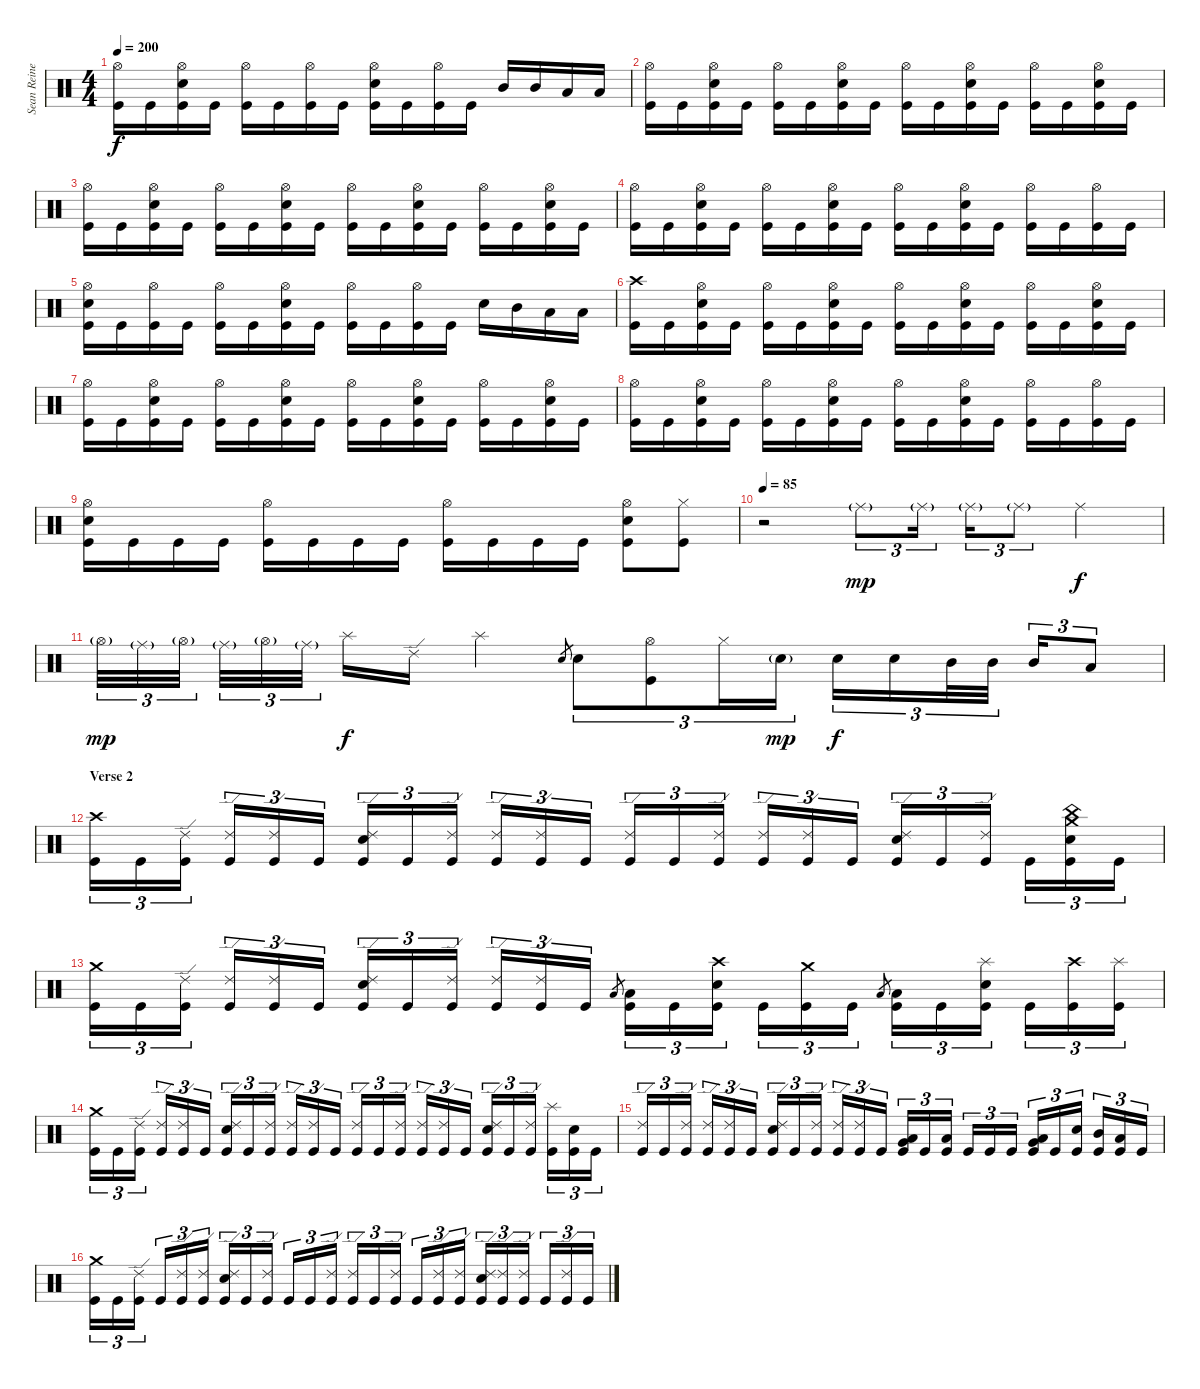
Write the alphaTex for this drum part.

\track ("Sean Reinert " "Sean Reine") {instrument percussion}
\staff {score}
\articulation defaults
\ts (4 4)
\tempo 200
\clef neutral
\ks c
("Hi-Hat (open)" "Kick (hit)").16{dy f} "Kick (hit)".16 ("Hi-Hat (open)" "Electric Snare (hit)" "Kick (hit)").16 "Kick (hit)".16 ("Hi-Hat (open)" "Kick (hit)").16 "Kick (hit)".16 ("Hi-Hat (open)" "Kick (hit)").16 "Kick (hit)".16 ("Hi-Hat (open)" "Electric Snare (hit)" "Kick (hit)").16 "Kick (hit)".16 ("Hi-Hat (open)" "Kick (hit)").16 "Kick (hit)".16 "Mid Tom (hit)".16 "Mid Tom (hit)".16 "Low Tom (hit)".16 "Low Tom (hit)".16 |
("Hi-Hat (open)" "Kick (hit)").16 "Kick (hit)".16 ("Hi-Hat (open)" "Electric Snare (hit)" "Kick (hit)").16 "Kick (hit)".16 ("Hi-Hat (open)" "Kick (hit)").16 "Kick (hit)".16 ("Hi-Hat (open)" "Electric Snare (hit)" "Kick (hit)").16 "Kick (hit)".16 ("Hi-Hat (open)" "Kick (hit)").16 "Kick (hit)".16 ("Hi-Hat (open)" "Electric Snare (hit)" "Kick (hit)").16 "Kick (hit)".16 ("Hi-Hat (open)" "Kick (hit)").16 "Kick (hit)".16 ("Hi-Hat (open)" "Electric Snare (hit)" "Kick (hit)").16 "Kick (hit)".16 |
("Hi-Hat (open)" "Kick (hit)").16 "Kick (hit)".16 ("Hi-Hat (open)" "Electric Snare (hit)" "Kick (hit)").16 "Kick (hit)".16 ("Hi-Hat (open)" "Kick (hit)").16 "Kick (hit)".16 ("Hi-Hat (open)" "Electric Snare (hit)" "Kick (hit)").16 "Kick (hit)".16 ("Hi-Hat (open)" "Kick (hit)").16 "Kick (hit)".16 ("Hi-Hat (open)" "Electric Snare (hit)" "Kick (hit)").16 "Kick (hit)".16 ("Hi-Hat (open)" "Kick (hit)").16 "Kick (hit)".16 ("Hi-Hat (open)" "Electric Snare (hit)" "Kick (hit)").16 "Kick (hit)".16 |
("Hi-Hat (open)" "Kick (hit)").16 "Kick (hit)".16 ("Hi-Hat (open)" "Electric Snare (hit)" "Kick (hit)").16 "Kick (hit)".16 ("Hi-Hat (open)" "Kick (hit)").16 "Kick (hit)".16 ("Hi-Hat (open)" "Electric Snare (hit)" "Kick (hit)").16 "Kick (hit)".16 ("Hi-Hat (open)" "Kick (hit)").16 "Kick (hit)".16 ("Hi-Hat (open)" "Electric Snare (hit)" "Kick (hit)").16 "Kick (hit)".16 ("Hi-Hat (open)" "Kick (hit)").16 "Kick (hit)".16 ("Hi-Hat (open)" "Kick (hit)").16 "Kick (hit)".16 |
("Hi-Hat (open)" "Electric Snare (hit)" "Kick (hit)").16 "Kick (hit)".16 ("Hi-Hat (open)" "Kick (hit)").16 "Kick (hit)".16 ("Hi-Hat (open)" "Kick (hit)").16 "Kick (hit)".16 ("Hi-Hat (open)" "Electric Snare (hit)" "Kick (hit)").16 "Kick (hit)".16 ("Hi-Hat (open)" "Kick (hit)").16 "Kick (hit)".16 ("Hi-Hat (open)" "Kick (hit)").16 "Kick (hit)".16 "Electric Snare (hit)".16 "Mid Tom (hit)".16 "Low Tom (hit)".16 "Low Tom (hit)".16 |
("Crash high (hit)" "Kick (hit)").16 "Kick (hit)".16 ("Hi-Hat (open)" "Electric Snare (hit)" "Kick (hit)").16 "Kick (hit)".16 ("Hi-Hat (open)" "Kick (hit)").16 "Kick (hit)".16 ("Hi-Hat (open)" "Electric Snare (hit)" "Kick (hit)").16 "Kick (hit)".16 ("Hi-Hat (open)" "Kick (hit)").16 "Kick (hit)".16 ("Hi-Hat (open)" "Electric Snare (hit)" "Kick (hit)").16 "Kick (hit)".16 ("Hi-Hat (open)" "Kick (hit)").16 "Kick (hit)".16 ("Hi-Hat (open)" "Electric Snare (hit)" "Kick (hit)").16 "Kick (hit)".16 |
("Hi-Hat (open)" "Kick (hit)").16 "Kick (hit)".16 ("Hi-Hat (open)" "Electric Snare (hit)" "Kick (hit)").16 "Kick (hit)".16 ("Hi-Hat (open)" "Kick (hit)").16 "Kick (hit)".16 ("Hi-Hat (open)" "Electric Snare (hit)" "Kick (hit)").16 "Kick (hit)".16 ("Hi-Hat (open)" "Kick (hit)").16 "Kick (hit)".16 ("Hi-Hat (open)" "Electric Snare (hit)" "Kick (hit)").16 "Kick (hit)".16 ("Hi-Hat (open)" "Kick (hit)").16 "Kick (hit)".16 ("Hi-Hat (open)" "Electric Snare (hit)" "Kick (hit)").16 "Kick (hit)".16 |
("Hi-Hat (open)" "Kick (hit)").16 "Kick (hit)".16 ("Hi-Hat (open)" "Electric Snare (hit)" "Kick (hit)").16 "Kick (hit)".16 ("Hi-Hat (open)" "Kick (hit)").16 "Kick (hit)".16 ("Hi-Hat (open)" "Electric Snare (hit)" "Kick (hit)").16 "Kick (hit)".16 ("Hi-Hat (open)" "Kick (hit)").16 "Kick (hit)".16 ("Hi-Hat (open)" "Electric Snare (hit)" "Kick (hit)").16 "Kick (hit)".16 ("Hi-Hat (open)" "Kick (hit)").16 "Kick (hit)".16 ("Hi-Hat (open)" "Kick (hit)").16 "Kick (hit)".16 |
("Hi-Hat (open)" "Electric Snare (hit)" "Kick (hit)").16 "Kick (hit)".16 "Kick (hit)".16 "Kick (hit)".16 ("Hi-Hat (open)" "Kick (hit)").16 "Kick (hit)".16 "Kick (hit)".16 "Kick (hit)".16 ("Hi-Hat (open)" "Kick (hit)").16 "Kick (hit)".16 "Kick (hit)".16 "Kick (hit)".16 ("Hi-Hat (open)" "Electric Snare (hit)" "Kick (hit)").8 ("Hi-Hat (closed)" "Kick (hit)").8 |
\tempo 85
r.2 "Ride (middle)"{g}.8{tu (3 2) dy mp} "Ride (middle)"{g}.16{tu (3 2)} "Ride (middle)"{g}.16{tu (3 2)} "Ride (middle)"{g}.8{tu (3 2)} "Ride (middle)".4{dy f} |
"Hi-Hat (open)"{g}.32{tu (3 2) dy mp} "Ride (middle)"{g}.32{tu (3 2)} "Hi-Hat (open)"{g}.32{tu (3 2)} "Ride (middle)"{g}.32{tu (3 2)} "Hi-Hat (open)"{g}.32{tu (3 2)} "Ride (middle)"{g}.32{tu (3 2)} "Splash (hit)".16{dy f} "Ride (edge) 2".16 "Splash (hit)".4 "Electric Snare (hit)".8{gr} "Electric Snare (hit)".8{tu (3 2)} ("Hi-Hat (open)" "Kick (hit)").8{tu (3 2)} "Hi-Hat (closed)".16{tu (3 2)} "Electric Snare (hit)"{g}.16{tu (3 2) dy mp} "Electric Snare (hit)".16{tu (3 2) dy f} "Electric Snare (hit)".16{tu (3 2)} "Mid Tom (hit)".32{tu (3 2)} "Mid Tom (hit)".32{tu (3 2)} "Mid Tom (hit)".16{tu (3 2)} "Low Tom (hit)".8{tu (3 2)} |
\section ("" "Verse 2")
("Crash high (hit)" "Kick (hit)").16{tu (3 2)} "Kick (hit)".16{tu (3 2)} ("Ride (edge) 2" "Kick (hit)").16{tu (3 2)} ("Ride (edge) 2" "Kick (hit)").16{tu (3 2)} ("Ride (edge) 2" "Kick (hit)").16{tu (3 2)} "Kick (hit)".16{tu (3 2)} ("Ride (edge) 2" "Electric Snare (hit)" "Kick (hit)").16{tu (3 2)} "Kick (hit)".16{tu (3 2)} ("Ride (edge) 2" "Kick (hit)").16{tu (3 2)} ("Ride (edge) 2" "Kick (hit)").16{tu (3 2)} ("Ride (edge) 2" "Kick (hit)").16{tu (3 2)} "Kick (hit)".16{tu (3 2)} ("Ride (edge) 2" "Kick (hit)").16{tu (3 2)} "Kick (hit)".16{tu (3 2)} ("Ride (edge) 2" "Kick (hit)").16{tu (3 2)} ("Ride (edge) 2" "Kick (hit)").16{tu (3 2)} ("Ride (edge) 2" "Kick (hit)").16{tu (3 2)} "Kick (hit)".16{tu (3 2)} ("Ride (edge) 2" "Electric Snare (hit)" "Kick (hit)").16{tu (3 2)} "Kick (hit)".16{tu (3 2)} ("Ride (edge) 2" "Kick (hit)").16{tu (3 2)} "Kick (hit)".16{tu (3 2)} ("Crash medium (hit)" "China (hit)" "Electric Snare (hit)" "Kick (hit)").16{tu (3 2)} "Kick (hit)".16{tu (3 2)} |
("Crash medium (hit)" "Kick (hit)").16{tu (3 2)} "Kick (hit)".16{tu (3 2)} ("Ride (edge) 2" "Kick (hit)").16{tu (3 2)} ("Ride (edge) 2" "Kick (hit)").16{tu (3 2)} ("Ride (edge) 2" "Kick (hit)").16{tu (3 2)} "Kick (hit)".16{tu (3 2)} ("Ride (edge) 2" "Electric Snare (hit)" "Kick (hit)").16{tu (3 2)} "Kick (hit)".16{tu (3 2)} ("Ride (edge) 2" "Kick (hit)").16{tu (3 2)} ("Ride (edge) 2" "Kick (hit)").16{tu (3 2)} ("Ride (edge) 2" "Kick (hit)").16{tu (3 2)} "Kick (hit)".16{tu (3 2)} "Low Tom (hit)".8{gr} ("Low Tom (hit)" "Kick (hit)").16{tu (3 2)} "Kick (hit)".16{tu (3 2)} ("Crash high (hit)" "Electric Snare (hit)" "Kick (hit)").16{tu (3 2)} "Kick (hit)".16{tu (3 2)} ("Crash medium (hit)" "Kick (hit)").16{tu (3 2)} "Kick (hit)".16{tu (3 2)} "Low Tom (hit)".8{gr} ("Low Tom (hit)" "Kick (hit)").16{tu (3 2)} "Kick (hit)".16{tu (3 2)} ("Splash (hit)" "Electric Snare (hit)" "Kick (hit)").16{tu (3 2)} "Kick (hit)".16{tu (3 2)} ("Crash high (hit)" "Kick (hit)").16{tu (3 2)} ("Splash (hit)" "Kick (hit)").16{tu (3 2)} |
("Crash medium (hit)" "Kick (hit)").16{tu (3 2)} "Kick (hit)".16{tu (3 2)} ("Ride (edge) 2" "Kick (hit)").16{tu (3 2)} ("Ride (edge) 2" "Kick (hit)").16{tu (3 2)} ("Ride (edge) 2" "Kick (hit)").16{tu (3 2)} "Kick (hit)".16{tu (3 2)} ("Ride (edge) 2" "Electric Snare (hit)" "Kick (hit)").16{tu (3 2)} "Kick (hit)".16{tu (3 2)} ("Ride (edge) 2" "Kick (hit)").16{tu (3 2)} ("Ride (edge) 2" "Kick (hit)").16{tu (3 2)} ("Ride (edge) 2" "Kick (hit)").16{tu (3 2)} "Kick (hit)".16{tu (3 2)} ("Ride (edge) 2" "Kick (hit)").16{tu (3 2)} "Kick (hit)".16{tu (3 2)} ("Ride (edge) 2" "Kick (hit)").16{tu (3 2)} ("Ride (edge) 2" "Kick (hit)").16{tu (3 2)} ("Ride (edge) 2" "Kick (hit)").16{tu (3 2)} "Kick (hit)".16{tu (3 2)} ("Ride (edge) 2" "Electric Snare (hit)" "Kick (hit)").16{tu (3 2)} "Kick (hit)".16{tu (3 2)} ("Ride (edge) 2" "Kick (hit)").16{tu (3 2)} ("Splash (hit)" "Kick (hit)").16{tu (3 2)} ("Electric Snare (hit)" "Kick (hit)").16{tu (3 2)} "Kick (hit)".16{tu (3 2)} |
("Ride (edge) 2" "Kick (hit)").16{tu (3 2)} "Kick (hit)".16{tu (3 2)} ("Ride (edge) 2" "Kick (hit)").16{tu (3 2)} ("Ride (edge) 2" "Kick (hit)").16{tu (3 2)} ("Ride (edge) 2" "Kick (hit)").16{tu (3 2)} "Kick (hit)".16{tu (3 2)} ("Ride (edge) 2" "Electric Snare (hit)" "Kick (hit)").16{tu (3 2)} "Kick (hit)".16{tu (3 2)} ("Ride (edge) 2" "Kick (hit)").16{tu (3 2)} ("Ride (edge) 2" "Kick (hit)").16{tu (3 2)} ("Ride (edge) 2" "Kick (hit)").16{tu (3 2)} "Kick (hit)".16{tu (3 2)} ("Very Low Tom (hit)" "Low Tom (hit)" "Kick (hit)").16{tu (3 2)} "Kick (hit)".16{tu (3 2)} ("Low Floor Tom (hit)" "Kick (hit)").16{tu (3 2)} "Kick (hit)".16{tu (3 2)} "Kick (hit)".16{tu (3 2)} "Kick (hit)".16{tu (3 2)} ("Very Low Tom (hit)" "Low Tom (hit)" "Kick (hit)").16{tu (3 2)} "Kick (hit)".16{tu (3 2)} ("Electric Snare (hit)" "Kick (hit)").16{tu (3 2)} ("Mid Tom (hit)" "Kick (hit)").16{tu (3 2)} ("Low Tom (hit)" "Kick (hit)").16{tu (3 2)} "Kick (hit)".16{tu (3 2)} |
("Crash medium (hit)" "Kick (hit)").16{tu (3 2)} "Kick (hit)".16{tu (3 2)} ("Ride (edge) 2" "Kick (hit)").16{tu (3 2)} "Kick (hit)".16{tu (3 2)} ("Ride (edge) 2" "Kick (hit)").16{tu (3 2)} ("Ride (edge) 2" "Kick (hit)").16{tu (3 2)} ("Ride (edge) 2" "Electric Snare (hit)" "Kick (hit)").16{tu (3 2)} "Kick (hit)".16{tu (3 2)} ("Ride (edge) 2" "Kick (hit)").16{tu (3 2)} "Kick (hit)".16{tu (3 2)} "Kick (hit)".16{tu (3 2)} ("Ride (edge) 2" "Kick (hit)").16{tu (3 2)} ("Ride (edge) 2" "Kick (hit)").16{tu (3 2)} "Kick (hit)".16{tu (3 2)} ("Ride (edge) 2" "Kick (hit)").16{tu (3 2)} "Kick (hit)".16{tu (3 2)} ("Ride (edge) 2" "Kick (hit)").16{tu (3 2)} ("Ride (edge) 2" "Kick (hit)").16{tu (3 2)} ("Ride (edge) 2" "Electric Snare (hit)" "Kick (hit)").16{tu (3 2)} ("Ride (edge) 2" "Kick (hit)").16{tu (3 2)} ("Ride (edge) 2" "Kick (hit)").16{tu (3 2)} "Kick (hit)".16{tu (3 2)} ("Ride (edge) 2" "Kick (hit)").16{tu (3 2)} "Kick (hit)".16{tu (3 2)}
